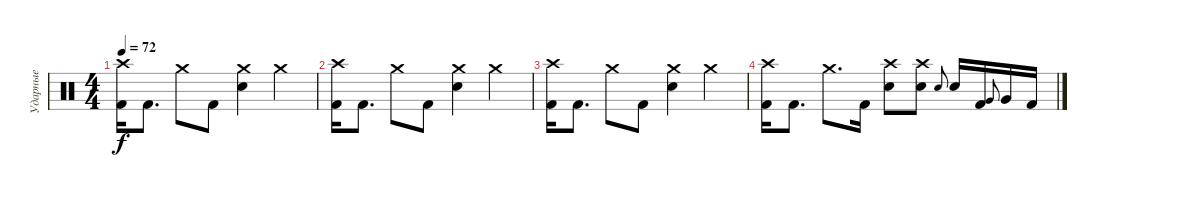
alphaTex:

\track ("Ударные" "Ударные") {instrument percussion}
\staff {score}
\articulation defaults
\ts (4 4)
\tempo 72
\clef neutral
\ks c
("Crash high (hit)" "Kick (hit) 2").16{dy f} "Kick (hit) 2".8{d} "Crash medium (hit)".8 "Kick (hit) 2".8 ("Crash medium (hit)" "Snare (hit) 2").4 "Crash medium (hit)".4 |
("Crash high (hit)" "Kick (hit) 2").16 "Kick (hit) 2".8{d} "Crash medium (hit)".8 "Kick (hit) 2".8 ("Crash medium (hit)" "Snare (hit) 2").4 "Crash medium (hit)".4 |
("Crash high (hit)" "Kick (hit) 2").16 "Kick (hit) 2".8{d} "Crash medium (hit)".8 "Kick (hit) 2".8 ("Crash medium (hit)" "Snare (hit) 2").4 "Crash medium (hit)".4 |
("Crash high (hit)" "Kick (hit) 2").16 "Kick (hit) 2".8{d} "Crash medium (hit)".8{d} "Kick (hit) 2".16 ("Crash high (hit)" "Snare (hit) 2").8 ("Crash high (hit)" "Snare (hit) 2").8 "Snare (hit) 2".8{gr onbeat} "Snare (hit) 2".16 "Kick (hit) 2".16 "Very Low Tom (hit)".8{gr onbeat} "Very Low Tom (hit)".16 "Kick (hit) 2".16
